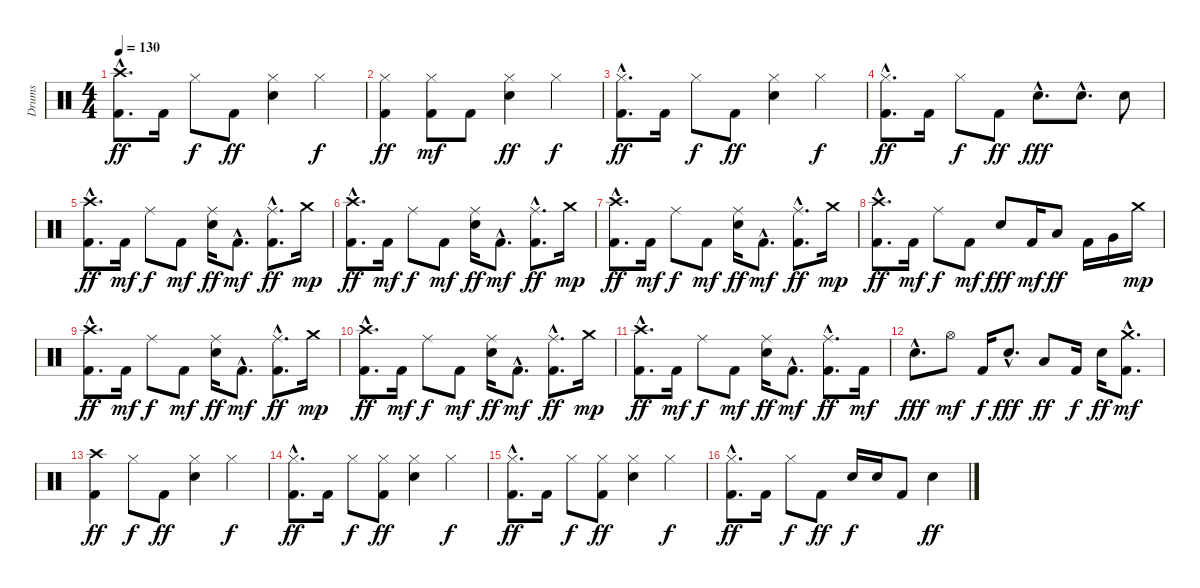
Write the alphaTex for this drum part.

\track ("Drums" "Drums") {instrument percussion}
\staff {score}
\articulation defaults
\ts (4 4)
\tempo 130
\clef neutral
\ks c
("Crash high (hit)"{hac} "Kick (hit) 2"{hac}).8{d dy ff} "Kick (hit) 2".16 "Hi-Hat (closed)".8{dy f} "Kick (hit) 2".8{dy ff} ("Hi-Hat (closed)" "Electric Snare (hit)").4 "Hi-Hat (closed)".4{dy f} |
("Hi-Hat (closed)" "Kick (hit) 2").4{dy ff} ("Hi-Hat (closed)" "Kick (hit) 2").8{dy mf} "Kick (hit) 2".8 ("Hi-Hat (closed)" "Electric Snare (hit)").4{dy ff} "Hi-Hat (closed)".4{dy f} |
("Hi-Hat (closed)"{hac} "Kick (hit) 2"{hac}).8{d dy ff} "Kick (hit) 2".16 "Hi-Hat (closed)".8{dy f} "Kick (hit) 2".8{dy ff} ("Hi-Hat (closed)" "Electric Snare (hit)").4 "Hi-Hat (closed)".4{dy f} |
("Hi-Hat (closed)"{hac} "Kick (hit) 2"{hac}).8{d dy ff} "Kick (hit) 2".16 "Hi-Hat (closed)".8{dy f} "Kick (hit) 2".8{dy ff} "Electric Snare (hit)"{hac}.8{d dy fff} "Electric Snare (hit)"{hac}.8{d} "Electric Snare (hit)".8 |
("Crash high (hit)"{hac} "Kick (hit) 2"{hac}).8{d dy ff} "Kick (hit) 2".16{dy mf} "Ride (middle)".8{dy f} "Kick (hit) 2".8{dy mf} ("Ride (middle)" "Electric Snare (hit)").16{dy ff} "Kick (hit) 2"{hac}.8{d dy mf} ("Ride (middle)"{hac} "Kick (hit) 2"{hac}).8{d dy ff} "Crash medium (hit)".16{dy mp} |
("Crash high (hit)"{hac} "Kick (hit) 2"{hac}).8{d dy ff} "Kick (hit) 2".16{dy mf} "Ride (middle)".8{dy f} "Kick (hit) 2".8{dy mf} ("Ride (middle)" "Electric Snare (hit)").16{dy ff} "Kick (hit) 2"{hac}.8{d dy mf} ("Ride (middle)"{hac} "Kick (hit) 2"{hac}).8{d dy ff} "Crash medium (hit)".16{dy mp} |
("Crash high (hit)"{hac} "Kick (hit) 2"{hac}).8{d dy ff} "Kick (hit) 2".16{dy mf} "Ride (middle)".8{dy f} "Kick (hit) 2".8{dy mf} ("Ride (middle)" "Electric Snare (hit)").16{dy ff} "Kick (hit) 2"{hac}.8{d dy mf} ("Ride (middle)"{hac} "Kick (hit) 2"{hac}).8{d dy ff} "Crash medium (hit)".16{dy mp} |
("Crash high (hit)"{hac} "Kick (hit) 2"{hac}).8{d dy ff} "Kick (hit) 2".16{dy mf} "Ride (middle)".8{dy f} "Kick (hit) 2".8{dy mf} "Electric Snare (hit)".8{dy fff} "Kick (hit) 2".16{dy mf} "Low Tom (hit)".8{dy ff} "Kick (hit) 2".16 "Very Low Tom (hit)".16 "Crash medium (hit)".16{dy mp} |
("Crash high (hit)"{hac} "Kick (hit) 2"{hac}).8{d dy ff} "Kick (hit) 2".16{dy mf} "Ride (middle)".8{dy f} "Kick (hit) 2".8{dy mf} ("Ride (middle)" "Electric Snare (hit)").16{dy ff} "Kick (hit) 2"{hac}.8{d dy mf} ("Ride (middle)"{hac} "Kick (hit) 2"{hac}).8{d dy ff} "Crash medium (hit)".16{dy mp} |
("Crash high (hit)"{hac} "Kick (hit) 2"{hac}).8{d dy ff} "Kick (hit) 2".16{dy mf} "Ride (middle)".8{dy f} "Kick (hit) 2".8{dy mf} ("Ride (middle)" "Electric Snare (hit)").16{dy ff} "Kick (hit) 2"{hac}.8{d dy mf} ("Ride (middle)"{hac} "Kick (hit) 2"{hac}).8{d dy ff} "Crash medium (hit)".16{dy mp} |
("Crash high (hit)"{hac} "Kick (hit) 2"{hac}).8{d dy ff} "Kick (hit) 2".16{dy mf} "Ride (middle)".8{dy f} "Kick (hit) 2".8{dy mf} ("Ride (middle)" "Electric Snare (hit)").16{dy ff} "Kick (hit) 2"{hac}.8{d dy mf} ("Ride (middle)"{hac} "Kick (hit) 2"{hac}).8{d dy ff} "Kick (hit) 2".16{dy mf} |
"Electric Snare (hit)"{hac}.8{d dy fff} "Hi-Hat (open)".8{dy mf} "Kick (hit) 2".16{dy f} "Electric Snare (hit)"{hac}.8{d dy fff} "Low Tom (hit)".8{dy ff} "Kick (hit) 2".16{dy f} "Electric Snare (hit)".16{dy ff} ("Crash medium (hit)"{hac} "Kick (hit) 2"{hac}).8{d dy mf} |
("Crash high (hit)" "Kick (hit) 2").4{dy ff} "Hi-Hat (closed)".8{dy f} "Kick (hit) 2".8{dy ff} ("Hi-Hat (closed)" "Electric Snare (hit)").4 "Hi-Hat (closed)".4{dy f} |
("Hi-Hat (closed)"{hac} "Kick (hit) 2"{hac}).8{d dy ff} "Kick (hit) 2".16 "Hi-Hat (closed)".8{dy f} ("Hi-Hat (closed)" "Kick (hit) 2").8{dy ff} ("Hi-Hat (closed)" "Electric Snare (hit)").4 "Hi-Hat (closed)".4{dy f} |
("Hi-Hat (closed)"{hac} "Kick (hit) 2"{hac}).8{d dy ff} "Kick (hit) 2".16 "Hi-Hat (closed)".8{dy f} ("Hi-Hat (closed)" "Kick (hit) 2").8{dy ff} ("Hi-Hat (closed)" "Electric Snare (hit)").4 "Hi-Hat (closed)".4{dy f} |
("Hi-Hat (closed)"{hac} "Kick (hit) 2"{hac}).8{d dy ff} "Kick (hit) 2".16 "Hi-Hat (closed)".8{dy f} "Kick (hit) 2".8{dy ff} "Electric Snare (hit)".16{dy f} "Electric Snare (hit)".16 "Kick (hit) 2".8 "Electric Snare (hit)".4{dy ff}
